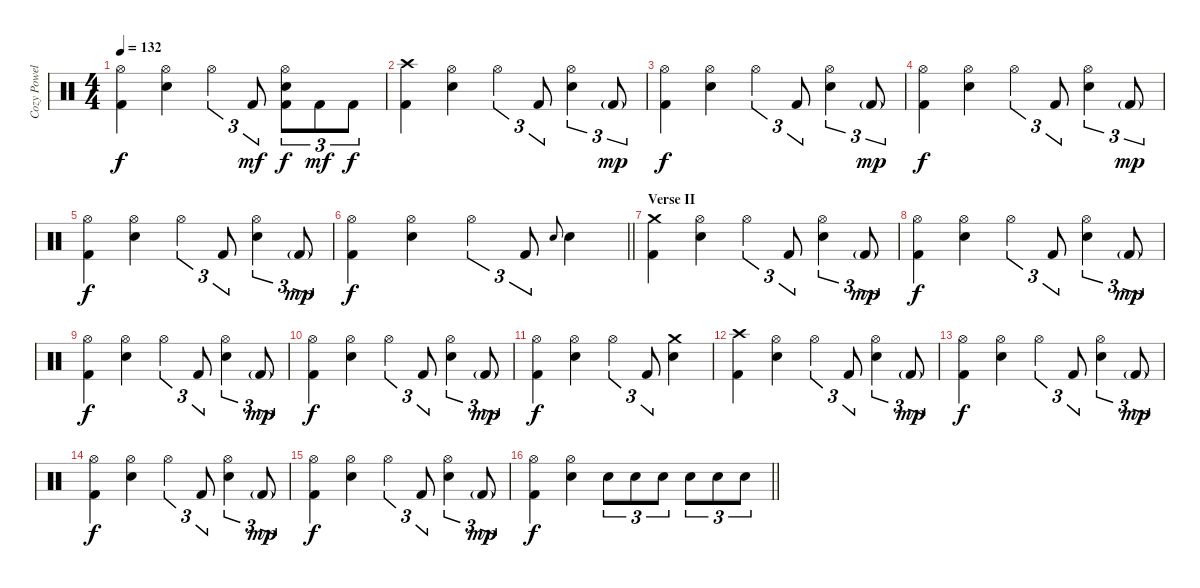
\track ("Cozy Powell" "Cozy Powel") {instrument percussion}
\staff {score}
\articulation defaults
\ts (4 4)
\tempo 132
\clef neutral
\ks c
("Hi-Hat (open)" "Kick (hit) 2").4{dy f} ("Hi-Hat (open)" "Snare (hit) 2").4 "Hi-Hat (open)".4{tu (3 2)} "Kick (hit) 2".8{tu (3 2) dy mf} ("Hi-Hat (open)" "Snare (hit) 2" "Kick (hit) 2").8{tu (3 2) dy f} "Kick (hit) 2".8{tu (3 2) dy mf} "Kick (hit) 2".8{tu (3 2) dy f} |
("Crash high (hit)" "Kick (hit) 2").4 ("Hi-Hat (open)" "Snare (hit) 2").4 "Hi-Hat (open)".4{tu (3 2)} "Kick (hit) 2".8{tu (3 2)} ("Hi-Hat (open)" "Snare (hit) 2").4{tu (3 2)} "Kick (hit) 2"{g}.8{tu (3 2) dy mp} |
("Hi-Hat (open)" "Kick (hit) 2").4{dy f} ("Hi-Hat (open)" "Snare (hit) 2").4 "Hi-Hat (open)".4{tu (3 2)} "Kick (hit) 2".8{tu (3 2)} ("Hi-Hat (open)" "Snare (hit) 2").4{tu (3 2)} "Kick (hit) 2"{g}.8{tu (3 2) dy mp} |
("Hi-Hat (open)" "Kick (hit) 2").4{dy f} ("Hi-Hat (open)" "Snare (hit) 2").4 "Hi-Hat (open)".4{tu (3 2)} "Kick (hit) 2".8{tu (3 2)} ("Hi-Hat (open)" "Snare (hit) 2").4{tu (3 2)} "Kick (hit) 2"{g}.8{tu (3 2) dy mp} |
("Hi-Hat (open)" "Kick (hit) 2").4{dy f} ("Hi-Hat (open)" "Snare (hit) 2").4 "Hi-Hat (open)".4{tu (3 2)} "Kick (hit) 2".8{tu (3 2)} ("Hi-Hat (open)" "Snare (hit) 2").4{tu (3 2)} "Kick (hit) 2"{g}.8{tu (3 2) dy mp} |
\barLineRight lightlight
("Hi-Hat (open)" "Kick (hit) 2").4{dy f} ("Hi-Hat (open)" "Snare (hit) 2").4 "Hi-Hat (open)".4{tu (3 2)} "Kick (hit) 2".8{tu (3 2)} "Snare (hit) 2".8{gr onbeat} "Snare (hit) 2".4 |
\section ("" "Verse II")
("Crash medium (hit)" "Kick (hit) 2").4 ("Hi-Hat (open)" "Snare (hit) 2").4 "Hi-Hat (open)".4{tu (3 2)} "Kick (hit) 2".8{tu (3 2)} ("Hi-Hat (open)" "Snare (hit) 2").4{tu (3 2)} "Kick (hit) 2"{g}.8{tu (3 2) dy mp} |
("Hi-Hat (open)" "Kick (hit) 2").4{dy f} ("Hi-Hat (open)" "Snare (hit) 2").4 "Hi-Hat (open)".4{tu (3 2)} "Kick (hit) 2".8{tu (3 2)} ("Hi-Hat (open)" "Snare (hit) 2").4{tu (3 2)} "Kick (hit) 2"{g}.8{tu (3 2) dy mp} |
("Hi-Hat (open)" "Kick (hit) 2").4{dy f} ("Hi-Hat (open)" "Snare (hit) 2").4 "Hi-Hat (open)".4{tu (3 2)} "Kick (hit) 2".8{tu (3 2)} ("Hi-Hat (open)" "Snare (hit) 2").4{tu (3 2)} "Kick (hit) 2"{g}.8{tu (3 2) dy mp} |
("Hi-Hat (open)" "Kick (hit) 2").4{dy f} ("Hi-Hat (open)" "Snare (hit) 2").4 "Hi-Hat (open)".4{tu (3 2)} "Kick (hit) 2".8{tu (3 2)} ("Hi-Hat (open)" "Snare (hit) 2").4{tu (3 2)} "Kick (hit) 2"{g}.8{tu (3 2) dy mp} |
("Hi-Hat (open)" "Kick (hit) 2").4{dy f} ("Hi-Hat (open)" "Snare (hit) 2").4 "Hi-Hat (open)".4{tu (3 2)} "Kick (hit) 2".8{tu (3 2)} ("Crash medium (hit)" "Snare (hit) 2").4 |
("Crash high (hit)" "Kick (hit) 2").4 ("Hi-Hat (open)" "Snare (hit) 2").4 "Hi-Hat (open)".4{tu (3 2)} "Kick (hit) 2".8{tu (3 2)} ("Hi-Hat (open)" "Snare (hit) 2").4{tu (3 2)} "Kick (hit) 2"{g}.8{tu (3 2) dy mp} |
("Hi-Hat (open)" "Kick (hit) 2").4{dy f} ("Hi-Hat (open)" "Snare (hit) 2").4 "Hi-Hat (open)".4{tu (3 2)} "Kick (hit) 2".8{tu (3 2)} ("Hi-Hat (open)" "Snare (hit) 2").4{tu (3 2)} "Kick (hit) 2"{g}.8{tu (3 2) dy mp} |
("Hi-Hat (open)" "Kick (hit) 2").4{dy f} ("Hi-Hat (open)" "Snare (hit) 2").4 "Hi-Hat (open)".4{tu (3 2)} "Kick (hit) 2".8{tu (3 2)} ("Hi-Hat (open)" "Snare (hit) 2").4{tu (3 2)} "Kick (hit) 2"{g}.8{tu (3 2) dy mp} |
("Hi-Hat (open)" "Kick (hit) 2").4{dy f} ("Hi-Hat (open)" "Snare (hit) 2").4 "Hi-Hat (open)".4{tu (3 2)} "Kick (hit) 2".8{tu (3 2)} ("Hi-Hat (open)" "Snare (hit) 2").4{tu (3 2)} "Kick (hit) 2"{g}.8{tu (3 2) dy mp} |
\barLineRight lightlight
("Hi-Hat (open)" "Kick (hit) 2").4{dy f} ("Hi-Hat (open)" "Snare (hit) 2").4 "Snare (hit) 2".8{tu (3 2)} "Snare (hit) 2".8{tu (3 2)} "Snare (hit) 2".8{tu (3 2)} "Snare (hit) 2".8{tu (3 2)} "Snare (hit) 2".8{tu (3 2)} "Snare (hit) 2".8{tu (3 2)}
